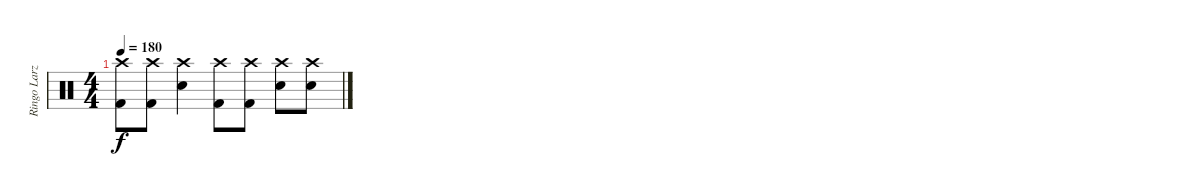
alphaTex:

\track ("Ringo Larz" "Ringo Larz") {instrument percussion}
\staff {score}
\articulation defaults
\ts (4 4)
\tempo 180
\clef neutral
\ks c
("Crash high (hit)" "Kick (hit) 2").8{dy f} ("Crash high (hit)" "Kick (hit) 2").8 ("Crash high (hit)" "Snare (hit) 2").4 ("Crash high (hit)" "Kick (hit) 2").8 ("Crash high (hit)" "Kick (hit) 2").8 ("Crash high (hit)" "Snare (hit) 2").8 ("Crash high (hit)" "Snare (hit) 2").8
